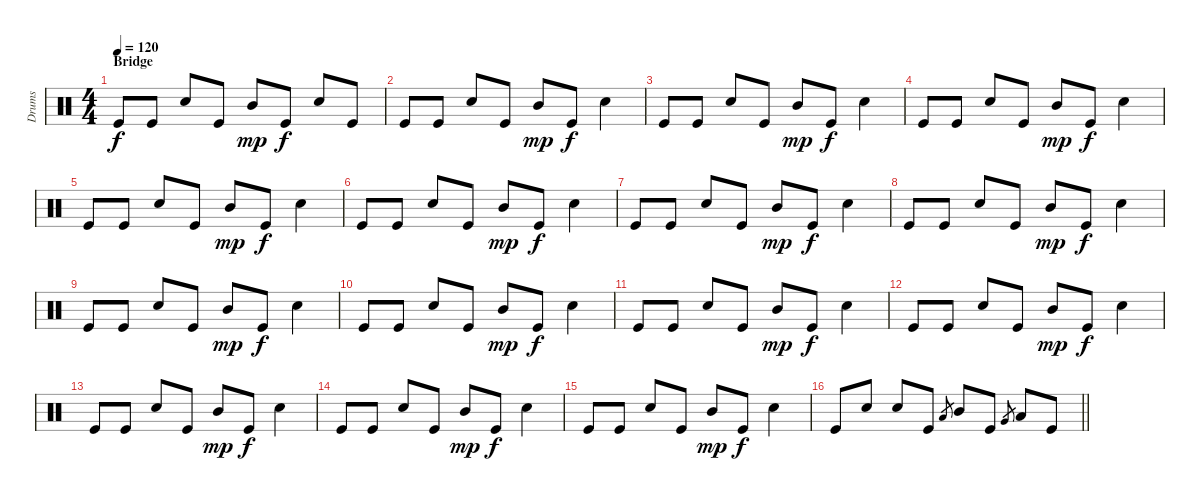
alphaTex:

\track ("Drums" "Drums") {instrument percussion}
\staff {score}
\articulation defaults
\ts (4 4)
\section ("" "Bridge")
\tempo 120
\clef neutral
\ks c "Kick (hit)".8{dy f} "Kick (hit)".8 "Electric Snare (hit)".8 "Kick (hit)".8 "Mid Tom (hit)".8{dy mp} "Kick (hit)".8{dy f} "Electric Snare (hit)".8 "Kick (hit)".8
|
"Kick (hit)".8 "Kick (hit)".8 "Electric Snare (hit)".8 "Kick (hit)".8 "Mid Tom (hit)".8{dy mp} "Kick (hit)".8{dy f} "Electric Snare (hit)".4 |
"Kick (hit)".8 "Kick (hit)".8 "Electric Snare (hit)".8 "Kick (hit)".8 "Mid Tom (hit)".8{dy mp} "Kick (hit)".8{dy f} "Electric Snare (hit)".4 |
"Kick (hit)".8 "Kick (hit)".8 "Electric Snare (hit)".8 "Kick (hit)".8 "Mid Tom (hit)".8{dy mp} "Kick (hit)".8{dy f} "Electric Snare (hit)".4 |
"Kick (hit)".8 "Kick (hit)".8 "Electric Snare (hit)".8 "Kick (hit)".8 "Mid Tom (hit)".8{dy mp} "Kick (hit)".8{dy f} "Electric Snare (hit)".4 |
"Kick (hit)".8 "Kick (hit)".8 "Electric Snare (hit)".8 "Kick (hit)".8 "Mid Tom (hit)".8{dy mp} "Kick (hit)".8{dy f} "Electric Snare (hit)".4 |
"Kick (hit)".8 "Kick (hit)".8 "Electric Snare (hit)".8 "Kick (hit)".8 "Mid Tom (hit)".8{dy mp} "Kick (hit)".8{dy f} "Electric Snare (hit)".4 |
"Kick (hit)".8 "Kick (hit)".8 "Electric Snare (hit)".8 "Kick (hit)".8 "Mid Tom (hit)".8{dy mp} "Kick (hit)".8{dy f} "Electric Snare (hit)".4 |
"Kick (hit)".8 "Kick (hit)".8 "Electric Snare (hit)".8 "Kick (hit)".8 "Mid Tom (hit)".8{dy mp} "Kick (hit)".8{dy f} "Electric Snare (hit)".4 |
"Kick (hit)".8 "Kick (hit)".8 "Electric Snare (hit)".8 "Kick (hit)".8 "Mid Tom (hit)".8{dy mp} "Kick (hit)".8{dy f} "Electric Snare (hit)".4 |
"Kick (hit)".8 "Kick (hit)".8 "Electric Snare (hit)".8 "Kick (hit)".8 "Mid Tom (hit)".8{dy mp} "Kick (hit)".8{dy f} "Electric Snare (hit)".4 |
"Kick (hit)".8 "Kick (hit)".8 "Electric Snare (hit)".8 "Kick (hit)".8 "Mid Tom (hit)".8{dy mp} "Kick (hit)".8{dy f} "Electric Snare (hit)".4 |
"Kick (hit)".8 "Kick (hit)".8 "Electric Snare (hit)".8 "Kick (hit)".8 "Mid Tom (hit)".8{dy mp} "Kick (hit)".8{dy f} "Electric Snare (hit)".4 |
"Kick (hit)".8 "Kick (hit)".8 "Electric Snare (hit)".8 "Kick (hit)".8 "Mid Tom (hit)".8{dy mp} "Kick (hit)".8{dy f} "Electric Snare (hit)".4 |
"Kick (hit)".8 "Kick (hit)".8 "Electric Snare (hit)".8 "Kick (hit)".8 "Mid Tom (hit)".8{dy mp} "Kick (hit)".8{dy f} "Electric Snare (hit)".4 |
\barLineRight lightlight "Kick (hit)".8 "Electric Snare (hit)".8 "Electric Snare (hit)".8 "Kick (hit)".8 "Low Tom (hit)".8{gr} "Mid Tom (hit)".8 "Kick (hit)".8 "Very Low Tom (hit)".8{gr} "Low Tom (hit)".8 "Kick (hit)".8
